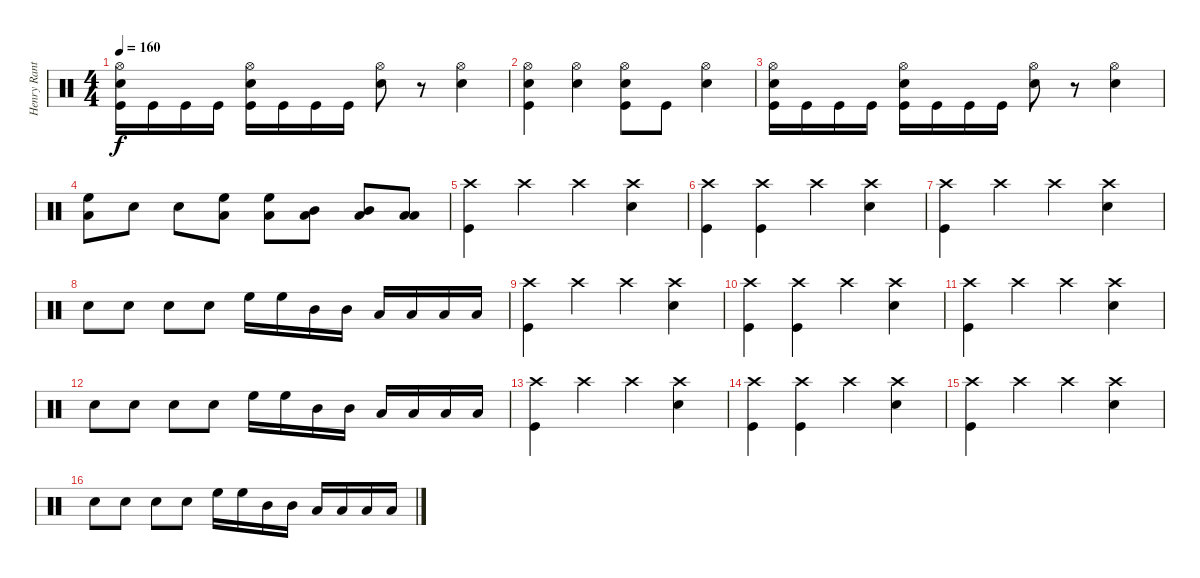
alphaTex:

\track ("Henry Ranta" "Henry Rant") {instrument percussion}
\staff {score}
\articulation defaults
\ts (4 4)
\tempo 160
\clef neutral
\ks c
("Hi-Hat (open)" "Snare (hit) 2" "Kick (hit)").16{dy f} "Kick (hit)".16 "Kick (hit)".16 "Kick (hit)".16 ("Hi-Hat (open)" "Snare (hit) 2" "Kick (hit)").16 "Kick (hit)".16 "Kick (hit)".16 "Kick (hit)".16 ("Hi-Hat (open)" "Snare (hit) 2").8 r.8 ("Hi-Hat (open)" "Snare (hit) 2").4 |
("Hi-Hat (open)" "Snare (hit) 2" "Kick (hit)").4 ("Hi-Hat (open)" "Snare (hit) 2").4 ("Hi-Hat (open)" "Snare (hit) 2" "Kick (hit)").8 "Kick (hit)".8 ("Hi-Hat (open)" "Snare (hit) 2").4 |
("Hi-Hat (open)" "Snare (hit) 2" "Kick (hit)").16 "Kick (hit)".16 "Kick (hit)".16 "Kick (hit)".16 ("Hi-Hat (open)" "Snare (hit) 2" "Kick (hit)").16 "Kick (hit)".16 "Kick (hit)".16 "Kick (hit)".16 ("Hi-Hat (open)" "Snare (hit) 2").8 r.8 ("Hi-Hat (open)" "Snare (hit) 2").4 |
("Low Floor Tom (hit)" "High Floor Tom (hit)").8 "Snare (hit) 2".8 "Snare (hit) 2".8 ("Low Floor Tom (hit)" "High Floor Tom (hit)").8 ("Low Floor Tom (hit)" "High Floor Tom (hit)").8 ("Low Floor Tom (hit)" "Mid Tom (hit)").8 ("Low Floor Tom (hit)" "Mid Tom (hit)").8 ("Low Floor Tom (hit)" "Low Tom (hit)").8 |
("Crash high (hit)" "Kick (hit)").4 "Crash high (hit)".4 "Crash high (hit)".4 ("Crash high (hit)" "Snare (hit) 2").4 |
("Crash high (hit)" "Kick (hit)").4 ("Crash high (hit)" "Kick (hit)").4 "Crash high (hit)".4 ("Crash high (hit)" "Snare (hit) 2").4 |
("Crash high (hit)" "Kick (hit)").4 "Crash high (hit)".4 "Crash high (hit)".4 ("Crash high (hit)" "Snare (hit) 2").4 |
"Snare (hit) 2".8 "Snare (hit) 2".8 "Snare (hit) 2".8 "Snare (hit) 2".8 "High Floor Tom (hit)".16 "High Floor Tom (hit)".16 "Mid Tom (hit)".16 "Mid Tom (hit)".16 "Low Tom (hit)".16 "Low Tom (hit)".16 "Low Floor Tom (hit)".16 "Low Floor Tom (hit)".16 |
("Crash high (hit)" "Kick (hit)").4 "Crash high (hit)".4 "Crash high (hit)".4 ("Crash high (hit)" "Snare (hit) 2").4 |
("Crash high (hit)" "Kick (hit)").4 ("Crash high (hit)" "Kick (hit)").4 "Crash high (hit)".4 ("Crash high (hit)" "Snare (hit) 2").4 |
("Crash high (hit)" "Kick (hit)").4 "Crash high (hit)".4 "Crash high (hit)".4 ("Crash high (hit)" "Snare (hit) 2").4 |
"Snare (hit) 2".8 "Snare (hit) 2".8 "Snare (hit) 2".8 "Snare (hit) 2".8 "High Floor Tom (hit)".16 "High Floor Tom (hit)".16 "Mid Tom (hit)".16 "Mid Tom (hit)".16 "Low Tom (hit)".16 "Low Tom (hit)".16 "Low Floor Tom (hit)".16 "Low Floor Tom (hit)".16 |
("Crash high (hit)" "Kick (hit)").4 "Crash high (hit)".4 "Crash high (hit)".4 ("Crash high (hit)" "Snare (hit) 2").4 |
("Crash high (hit)" "Kick (hit)").4 ("Crash high (hit)" "Kick (hit)").4 "Crash high (hit)".4 ("Crash high (hit)" "Snare (hit) 2").4 |
("Crash high (hit)" "Kick (hit)").4 "Crash high (hit)".4 "Crash high (hit)".4 ("Crash high (hit)" "Snare (hit) 2").4 |
"Snare (hit) 2".8 "Snare (hit) 2".8 "Snare (hit) 2".8 "Snare (hit) 2".8 "High Floor Tom (hit)".16 "High Floor Tom (hit)".16 "Mid Tom (hit)".16 "Mid Tom (hit)".16 "Low Tom (hit)".16 "Low Tom (hit)".16 "Low Floor Tom (hit)".16 "Low Floor Tom (hit)".16
